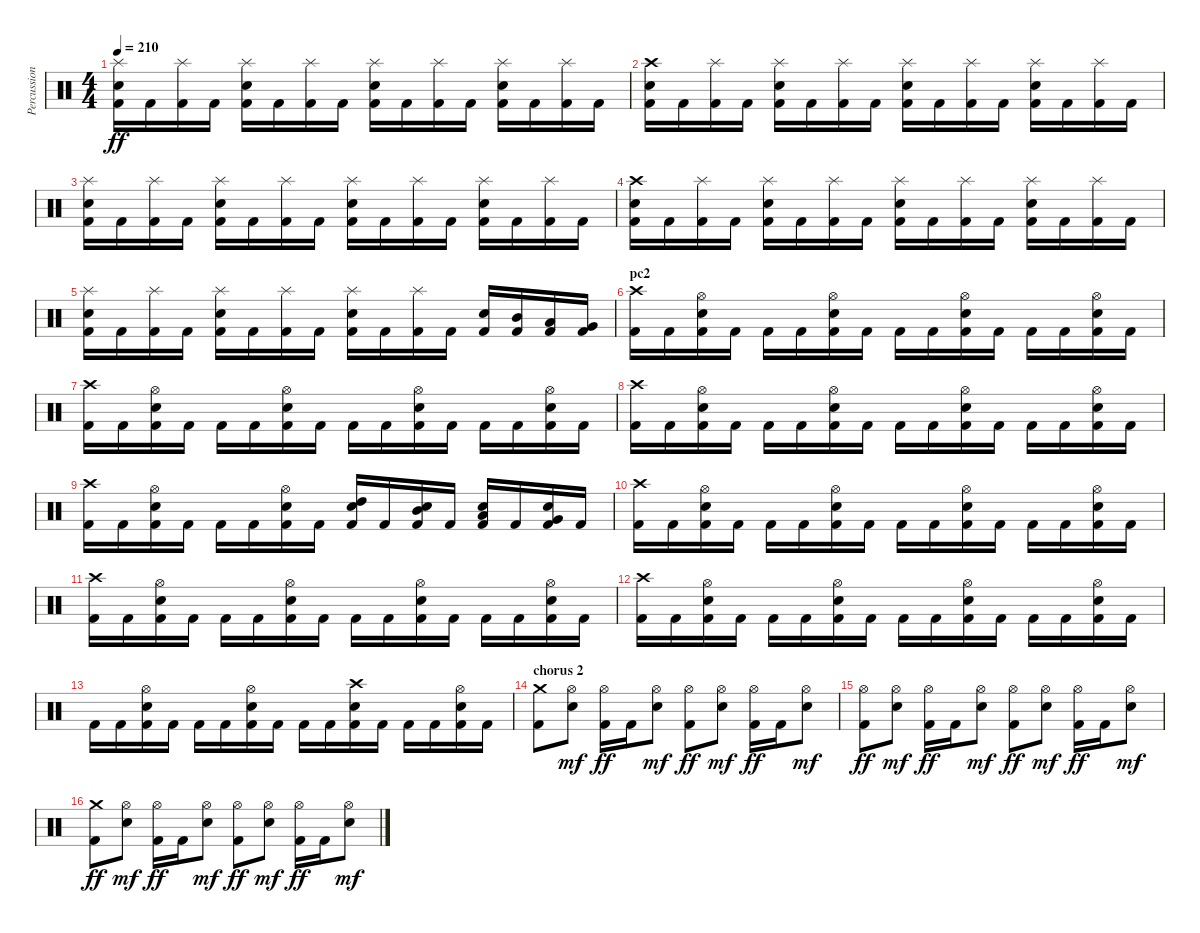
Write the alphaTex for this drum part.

\track ("Percussion" "Percussion") {instrument percussion}
\staff {score}
\articulation defaults
\ts (4 4)
\tempo 210
\clef neutral
\ks c
("Splash (hit)" "Snare (hit) 2" "Kick (hit) 2").16{dy ff} "Kick (hit) 2".16 ("Splash (hit)" "Kick (hit) 2").16 "Kick (hit) 2".16 ("Splash (hit)" "Snare (hit) 2" "Kick (hit) 2").16 "Kick (hit) 2".16 ("Splash (hit)" "Kick (hit) 2").16 "Kick (hit) 2".16 ("Splash (hit)" "Snare (hit) 2" "Kick (hit) 2").16 "Kick (hit) 2".16 ("Splash (hit)" "Kick (hit) 2").16 "Kick (hit) 2".16 ("Splash (hit)" "Snare (hit) 2" "Kick (hit) 2").16 "Kick (hit) 2".16 ("Splash (hit)" "Kick (hit) 2").16 "Kick (hit) 2".16 |
("Crash high (hit)" "Snare (hit) 2" "Kick (hit) 2").16 "Kick (hit) 2".16 ("Splash (hit)" "Kick (hit) 2").16 "Kick (hit) 2".16 ("Splash (hit)" "Snare (hit) 2" "Kick (hit) 2").16 "Kick (hit) 2".16 ("Splash (hit)" "Kick (hit) 2").16 "Kick (hit) 2".16 ("Splash (hit)" "Snare (hit) 2" "Kick (hit) 2").16 "Kick (hit) 2".16 ("Splash (hit)" "Kick (hit) 2").16 "Kick (hit) 2".16 ("Splash (hit)" "Snare (hit) 2" "Kick (hit) 2").16 "Kick (hit) 2".16 ("Splash (hit)" "Kick (hit) 2").16 "Kick (hit) 2".16 |
("Splash (hit)" "Snare (hit) 2" "Kick (hit) 2").16 "Kick (hit) 2".16 ("Splash (hit)" "Kick (hit) 2").16 "Kick (hit) 2".16 ("Splash (hit)" "Snare (hit) 2" "Kick (hit) 2").16 "Kick (hit) 2".16 ("Splash (hit)" "Kick (hit) 2").16 "Kick (hit) 2".16 ("Splash (hit)" "Snare (hit) 2" "Kick (hit) 2").16 "Kick (hit) 2".16 ("Splash (hit)" "Kick (hit) 2").16 "Kick (hit) 2".16 ("Splash (hit)" "Snare (hit) 2" "Kick (hit) 2").16 "Kick (hit) 2".16 ("Splash (hit)" "Kick (hit) 2").16 "Kick (hit) 2".16 |
("Crash high (hit)" "Snare (hit) 2" "Kick (hit) 2").16 "Kick (hit) 2".16 ("Splash (hit)" "Kick (hit) 2").16 "Kick (hit) 2".16 ("Splash (hit)" "Snare (hit) 2" "Kick (hit) 2").16 "Kick (hit) 2".16 ("Splash (hit)" "Kick (hit) 2").16 "Kick (hit) 2".16 ("Splash (hit)" "Snare (hit) 2" "Kick (hit) 2").16 "Kick (hit) 2".16 ("Splash (hit)" "Kick (hit) 2").16 "Kick (hit) 2".16 ("Splash (hit)" "Snare (hit) 2" "Kick (hit) 2").16 "Kick (hit) 2".16 ("Splash (hit)" "Kick (hit) 2").16 "Kick (hit) 2".16 |
("Splash (hit)" "Snare (hit) 2" "Kick (hit) 2").16 "Kick (hit) 2".16 ("Splash (hit)" "Kick (hit) 2").16 "Kick (hit) 2".16 ("Splash (hit)" "Snare (hit) 2" "Kick (hit) 2").16 "Kick (hit) 2".16 ("Splash (hit)" "Kick (hit) 2").16 "Kick (hit) 2".16 ("Splash (hit)" "Snare (hit) 2" "Kick (hit) 2").16 "Kick (hit) 2".16 ("Splash (hit)" "Kick (hit) 2").16 "Kick (hit) 2".16 ("Snare (hit) 2" "Kick (hit) 2").16 ("Mid Tom (hit)" "Kick (hit) 2").16 ("Low Tom (hit)" "Kick (hit) 2").16 ("Very Low Tom (hit)" "Kick (hit) 2").16 |
\section ("" "pc2")
("Crash high (hit)" "Kick (hit) 2").16 "Kick (hit) 2".16 ("Hi-Hat (open)" "Snare (hit) 2" "Kick (hit) 2").16 "Kick (hit) 2".16 "Kick (hit) 2".16 "Kick (hit) 2".16 ("Hi-Hat (open)" "Snare (hit) 2" "Kick (hit) 2").16 "Kick (hit) 2".16 "Kick (hit) 2".16 "Kick (hit) 2".16 ("Hi-Hat (open)" "Snare (hit) 2" "Kick (hit) 2").16 "Kick (hit) 2".16 "Kick (hit) 2".16 "Kick (hit) 2".16 ("Hi-Hat (open)" "Snare (hit) 2" "Kick (hit) 2").16 "Kick (hit) 2".16 |
("Crash high (hit)" "Kick (hit) 2").16 "Kick (hit) 2".16 ("Hi-Hat (open)" "Snare (hit) 2" "Kick (hit) 2").16 "Kick (hit) 2".16 "Kick (hit) 2".16 "Kick (hit) 2".16 ("Hi-Hat (open)" "Snare (hit) 2" "Kick (hit) 2").16 "Kick (hit) 2".16 "Kick (hit) 2".16 "Kick (hit) 2".16 ("Hi-Hat (open)" "Snare (hit) 2" "Kick (hit) 2").16 "Kick (hit) 2".16 "Kick (hit) 2".16 "Kick (hit) 2".16 ("Hi-Hat (open)" "Snare (hit) 2" "Kick (hit) 2").16 "Kick (hit) 2".16 |
("Crash high (hit)" "Kick (hit) 2").16 "Kick (hit) 2".16 ("Hi-Hat (open)" "Snare (hit) 2" "Kick (hit) 2").16 "Kick (hit) 2".16 "Kick (hit) 2".16 "Kick (hit) 2".16 ("Hi-Hat (open)" "Snare (hit) 2" "Kick (hit) 2").16 "Kick (hit) 2".16 "Kick (hit) 2".16 "Kick (hit) 2".16 ("Hi-Hat (open)" "Snare (hit) 2" "Kick (hit) 2").16 "Kick (hit) 2".16 "Kick (hit) 2".16 "Kick (hit) 2".16 ("Hi-Hat (open)" "Snare (hit) 2" "Kick (hit) 2").16 "Kick (hit) 2".16 |
("Crash high (hit)" "Kick (hit) 2").16 "Kick (hit) 2".16 ("Hi-Hat (open)" "Snare (hit) 2" "Kick (hit) 2").16 "Kick (hit) 2".16 "Kick (hit) 2".16 "Kick (hit) 2".16 ("Hi-Hat (open)" "Snare (hit) 2" "Kick (hit) 2").16 "Kick (hit) 2".16 ("High Tom (hit)" "Snare (hit) 2" "Kick (hit) 2").16 "Kick (hit) 2".16 ("Mid Tom (hit)" "Snare (hit) 2" "Kick (hit) 2").16 "Kick (hit) 2".16 ("Low Tom (hit)" "Snare (hit) 2" "Kick (hit) 2").16 "Kick (hit) 2".16 ("Very Low Tom (hit)" "Snare (hit) 2" "Kick (hit) 2").16 "Kick (hit) 2".16 |
("Crash high (hit)" "Kick (hit) 2").16 "Kick (hit) 2".16 ("Hi-Hat (open)" "Snare (hit) 2" "Kick (hit) 2").16 "Kick (hit) 2".16 "Kick (hit) 2".16 "Kick (hit) 2".16 ("Hi-Hat (open)" "Snare (hit) 2" "Kick (hit) 2").16 "Kick (hit) 2".16 "Kick (hit) 2".16 "Kick (hit) 2".16 ("Hi-Hat (open)" "Snare (hit) 2" "Kick (hit) 2").16 "Kick (hit) 2".16 "Kick (hit) 2".16 "Kick (hit) 2".16 ("Hi-Hat (open)" "Snare (hit) 2" "Kick (hit) 2").16 "Kick (hit) 2".16 |
("Crash high (hit)" "Kick (hit) 2").16 "Kick (hit) 2".16 ("Hi-Hat (open)" "Snare (hit) 2" "Kick (hit) 2").16 "Kick (hit) 2".16 "Kick (hit) 2".16 "Kick (hit) 2".16 ("Hi-Hat (open)" "Snare (hit) 2" "Kick (hit) 2").16 "Kick (hit) 2".16 "Kick (hit) 2".16 "Kick (hit) 2".16 ("Hi-Hat (open)" "Snare (hit) 2" "Kick (hit) 2").16 "Kick (hit) 2".16 "Kick (hit) 2".16 "Kick (hit) 2".16 ("Hi-Hat (open)" "Snare (hit) 2" "Kick (hit) 2").16 "Kick (hit) 2".16 |
("Crash high (hit)" "Kick (hit) 2").16 "Kick (hit) 2".16 ("Hi-Hat (open)" "Snare (hit) 2" "Kick (hit) 2").16 "Kick (hit) 2".16 "Kick (hit) 2".16 "Kick (hit) 2".16 ("Hi-Hat (open)" "Snare (hit) 2" "Kick (hit) 2").16 "Kick (hit) 2".16 "Kick (hit) 2".16 "Kick (hit) 2".16 ("Hi-Hat (open)" "Snare (hit) 2" "Kick (hit) 2").16 "Kick (hit) 2".16 "Kick (hit) 2".16 "Kick (hit) 2".16 ("Hi-Hat (open)" "Snare (hit) 2" "Kick (hit) 2").16 "Kick (hit) 2".16 |
"Kick (hit) 2".16 "Kick (hit) 2".16 ("Hi-Hat (open)" "Snare (hit) 2" "Kick (hit) 2").16 "Kick (hit) 2".16 "Kick (hit) 2".16 "Kick (hit) 2".16 ("Hi-Hat (open)" "Snare (hit) 2" "Kick (hit) 2").16 "Kick (hit) 2".16 "Kick (hit) 2".16 "Kick (hit) 2".16 ("Crash high (hit)" "Snare (hit) 2" "Kick (hit) 2").16 "Kick (hit) 2".16 "Kick (hit) 2".16 "Kick (hit) 2".16 ("Hi-Hat (open)" "Snare (hit) 2" "Kick (hit) 2").16 "Kick (hit) 2".16 |
\section ("" "chorus 2")
("Crash medium (hit)" "Kick (hit) 2").8 ("Hi-Hat (open)" "Snare (hit) 2").8{dy mf} ("Hi-Hat (open)" "Kick (hit) 2").16{dy ff} "Kick (hit) 2".16 ("Hi-Hat (open)" "Snare (hit) 2").8{dy mf} ("Hi-Hat (open)" "Kick (hit) 2").8{dy ff} ("Hi-Hat (open)" "Snare (hit) 2").8{dy mf} ("Hi-Hat (open)" "Kick (hit) 2").16{dy ff} "Kick (hit) 2".16 ("Hi-Hat (open)" "Snare (hit) 2").8{dy mf} |
("Hi-Hat (open)" "Kick (hit) 2").8{dy ff} ("Hi-Hat (open)" "Snare (hit) 2").8{dy mf} ("Hi-Hat (open)" "Kick (hit) 2").16{dy ff} "Kick (hit) 2".16 ("Hi-Hat (open)" "Snare (hit) 2").8{dy mf} ("Hi-Hat (open)" "Kick (hit) 2").8{dy ff} ("Hi-Hat (open)" "Snare (hit) 2").8{dy mf} ("Hi-Hat (open)" "Kick (hit) 2").16{dy ff} "Kick (hit) 2".16 ("Hi-Hat (open)" "Snare (hit) 2").8{dy mf} |
("Crash medium (hit)" "Kick (hit) 2").8{dy ff} ("Hi-Hat (open)" "Snare (hit) 2").8{dy mf} ("Hi-Hat (open)" "Kick (hit) 2").16{dy ff} "Kick (hit) 2".16 ("Hi-Hat (open)" "Snare (hit) 2").8{dy mf} ("Hi-Hat (open)" "Kick (hit) 2").8{dy ff} ("Hi-Hat (open)" "Snare (hit) 2").8{dy mf} ("Hi-Hat (open)" "Kick (hit) 2").16{dy ff} "Kick (hit) 2".16 ("Hi-Hat (open)" "Snare (hit) 2").8{dy mf}
